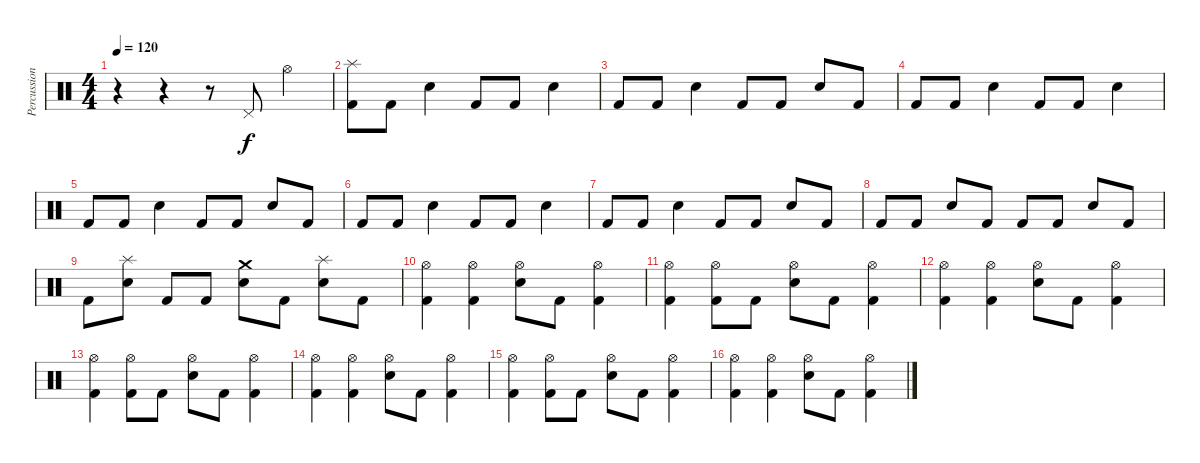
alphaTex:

\track ("Percussion" "Percussion") {instrument percussion}
\staff {score}
\articulation defaults
\ts (4 4)
\tempo 120
\clef neutral
\ks c
r.4{dy f} r.4 r.8 "Pedal Hi-Hat (hit)".8 "Hi-Hat (open)".4 |
("Splash (hit)" "Kick (hit) 2").8 "Kick (hit) 2".8 "Electric Snare (hit)".4 "Kick (hit) 2".8 "Kick (hit) 2".8 "Electric Snare (hit)".4 |
"Kick (hit) 2".8 "Kick (hit) 2".8 "Electric Snare (hit)".4 "Kick (hit) 2".8 "Kick (hit) 2".8 "Electric Snare (hit)".8 "Kick (hit) 2".8 |
"Kick (hit) 2".8 "Kick (hit) 2".8 "Electric Snare (hit)".4 "Kick (hit) 2".8 "Kick (hit) 2".8 "Electric Snare (hit)".4 |
"Kick (hit) 2".8 "Kick (hit) 2".8 "Electric Snare (hit)".4 "Kick (hit) 2".8 "Kick (hit) 2".8 "Electric Snare (hit)".8 "Kick (hit) 2".8 |
"Kick (hit) 2".8 "Kick (hit) 2".8 "Electric Snare (hit)".4 "Kick (hit) 2".8 "Kick (hit) 2".8 "Electric Snare (hit)".4 |
"Kick (hit) 2".8 "Kick (hit) 2".8 "Electric Snare (hit)".4 "Kick (hit) 2".8 "Kick (hit) 2".8 "Electric Snare (hit)".8 "Kick (hit) 2".8 |
"Kick (hit) 2".8 "Kick (hit) 2".8 "Electric Snare (hit)".8 "Kick (hit) 2".8 "Kick (hit) 2".8 "Kick (hit) 2".8 "Electric Snare (hit)".8 "Kick (hit) 2".8 |
"Kick (hit) 2".8 ("Splash (hit)" "Electric Snare (hit)").8 "Kick (hit) 2".8 "Kick (hit) 2".8 ("Crash medium (hit)" "Electric Snare (hit)").8 "Kick (hit) 2".8 ("Splash (hit)" "Electric Snare (hit)").8 "Kick (hit) 2".8 |
("Hi-Hat (open)" "Kick (hit) 2").4 ("Hi-Hat (open)" "Kick (hit) 2").4 ("Hi-Hat (open)" "Electric Snare (hit)").8 "Kick (hit) 2".8 ("Hi-Hat (open)" "Kick (hit) 2").4 |
("Hi-Hat (open)" "Kick (hit) 2").4 ("Hi-Hat (open)" "Kick (hit) 2").8 "Kick (hit) 2".8 ("Hi-Hat (open)" "Electric Snare (hit)").8 "Kick (hit) 2".8 ("Hi-Hat (open)" "Kick (hit) 2").4 |
("Hi-Hat (open)" "Kick (hit) 2").4 ("Hi-Hat (open)" "Kick (hit) 2").4 ("Hi-Hat (open)" "Electric Snare (hit)").8 "Kick (hit) 2".8 ("Hi-Hat (open)" "Kick (hit) 2").4 |
("Hi-Hat (open)" "Kick (hit) 2").4 ("Hi-Hat (open)" "Kick (hit) 2").8 "Kick (hit) 2".8 ("Hi-Hat (open)" "Electric Snare (hit)").8 "Kick (hit) 2".8 ("Hi-Hat (open)" "Kick (hit) 2").4 |
("Hi-Hat (open)" "Kick (hit) 2").4 ("Hi-Hat (open)" "Kick (hit) 2").4 ("Hi-Hat (open)" "Electric Snare (hit)").8 "Kick (hit) 2".8 ("Hi-Hat (open)" "Kick (hit) 2").4 |
("Hi-Hat (open)" "Kick (hit) 2").4 ("Hi-Hat (open)" "Kick (hit) 2").8 "Kick (hit) 2".8 ("Hi-Hat (open)" "Electric Snare (hit)").8 "Kick (hit) 2".8 ("Hi-Hat (open)" "Kick (hit) 2").4 |
("Hi-Hat (open)" "Kick (hit) 2").4 ("Hi-Hat (open)" "Kick (hit) 2").4 ("Hi-Hat (open)" "Electric Snare (hit)").8 "Kick (hit) 2".8 ("Hi-Hat (open)" "Kick (hit) 2").4
